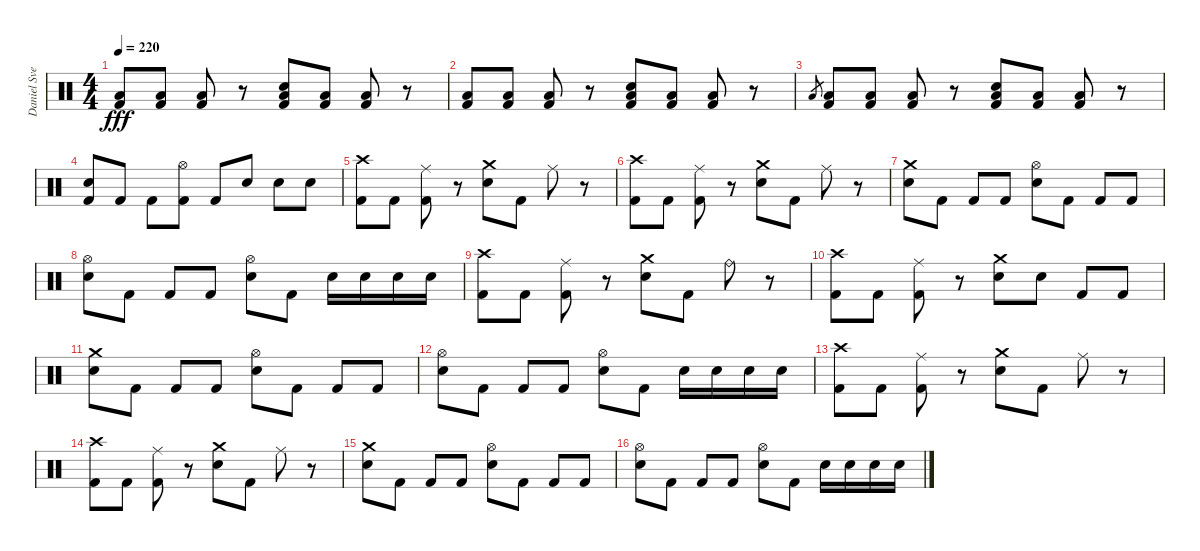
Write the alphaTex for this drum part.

\track ("Daniel Svensson" "Daniel Sve") {instrument percussion}
\staff {score}
\articulation defaults
\ts (4 4)
\tempo 220
\clef neutral
\ks c
("Low Floor Tom (hit)" "Kick (hit) 2").8{dy fff} ("Low Floor Tom (hit)" "Kick (hit) 2").8 ("Low Floor Tom (hit)" "Kick (hit) 2").8 r.8 ("Low Floor Tom (hit)" "Electric Snare (hit)" "Kick (hit) 2").8 ("Low Floor Tom (hit)" "Kick (hit) 2").8 ("Low Floor Tom (hit)" "Kick (hit) 2").8 r.8 |
("Low Floor Tom (hit)" "Kick (hit) 2").8 ("Low Floor Tom (hit)" "Kick (hit) 2").8 ("Low Floor Tom (hit)" "Kick (hit) 2").8 r.8 ("Low Floor Tom (hit)" "Electric Snare (hit)" "Kick (hit) 2").8 ("Low Floor Tom (hit)" "Kick (hit) 2").8 ("Low Floor Tom (hit)" "Kick (hit) 2").8 r.8 |
"Low Floor Tom (hit)".8{gr} ("Low Floor Tom (hit)" "Kick (hit) 2").8 ("Low Floor Tom (hit)" "Kick (hit) 2").8 ("Low Floor Tom (hit)" "Kick (hit) 2").8 r.8 ("Low Floor Tom (hit)" "Electric Snare (hit)" "Kick (hit) 2").8 ("Low Floor Tom (hit)" "Kick (hit) 2").8 ("Low Floor Tom (hit)" "Kick (hit) 2").8 r.8 |
("Electric Snare (hit)" "Kick (hit) 2").8 "Kick (hit) 2".8 "Kick (hit) 2".8 ("Hi-Hat (open)" "Kick (hit) 2").8 "Kick (hit) 2".8 "Electric Snare (hit)".8 "Electric Snare (hit)".8 "Electric Snare (hit)".8 |
("Crash high (hit)" "Kick (hit) 2").8 "Kick (hit) 2".8 ("Ride (middle)" "Kick (hit) 2").8 r.8 ("Crash medium (hit)" "Electric Snare (hit)").8 "Kick (hit) 2".8 "Ride (middle)".8 r.8 |
("Crash high (hit)" "Kick (hit) 2").8 "Kick (hit) 2".8 ("Ride (middle)" "Kick (hit) 2").8 r.8 ("Crash medium (hit)" "Electric Snare (hit)").8 "Kick (hit) 2".8 "Ride (middle)".8 r.8 |
("Crash medium (hit)" "Electric Snare (hit)").8 "Kick (hit) 2".8 "Kick (hit) 2".8 "Kick (hit) 2".8 ("Hi-Hat (open)" "Electric Snare (hit)").8 "Kick (hit) 2".8 "Kick (hit) 2".8 "Kick (hit) 2".8 |
("Hi-Hat (open)" "Electric Snare (hit)").8 "Kick (hit) 2".8 "Kick (hit) 2".8 "Kick (hit) 2".8 ("Hi-Hat (open)" "Electric Snare (hit)").8 "Kick (hit) 2".8 "Electric Snare (hit)".16 "Electric Snare (hit)".16 "Electric Snare (hit)".16 "Electric Snare (hit)".16 |
("Crash high (hit)" "Kick (hit) 2").8 "Kick (hit) 2".8 ("Ride (middle)" "Kick (hit) 2").8 r.8 ("Crash medium (hit)" "Electric Snare (hit)").8 "Kick (hit) 2".8 "Ride (bell)".8 r.8 |
("Crash high (hit)" "Kick (hit) 2").8 "Kick (hit) 2".8 ("Ride (middle)" "Kick (hit) 2").8 r.8 ("Crash medium (hit)" "Electric Snare (hit)").8 "Electric Snare (hit)".8 "Kick (hit) 2".8 "Kick (hit) 2".8 |
("Crash medium (hit)" "Electric Snare (hit)").8 "Kick (hit) 2".8 "Kick (hit) 2".8 "Kick (hit) 2".8 ("Hi-Hat (open)" "Electric Snare (hit)").8 "Kick (hit) 2".8 "Kick (hit) 2".8 "Kick (hit) 2".8 |
("Hi-Hat (open)" "Electric Snare (hit)").8 "Kick (hit) 2".8 "Kick (hit) 2".8 "Kick (hit) 2".8 ("Hi-Hat (open)" "Electric Snare (hit)").8 "Kick (hit) 2".8 "Electric Snare (hit)".16 "Electric Snare (hit)".16 "Electric Snare (hit)".16 "Electric Snare (hit)".16 |
("Crash high (hit)" "Kick (hit) 2").8 "Kick (hit) 2".8 ("Ride (middle)" "Kick (hit) 2").8 r.8 ("Crash medium (hit)" "Electric Snare (hit)").8 "Kick (hit) 2".8 "Ride (middle)".8 r.8 |
("Crash high (hit)" "Kick (hit) 2").8 "Kick (hit) 2".8 ("Ride (middle)" "Kick (hit) 2").8 r.8 ("Crash medium (hit)" "Electric Snare (hit)").8 "Kick (hit) 2".8 "Ride (middle)".8 r.8 |
("Crash medium (hit)" "Electric Snare (hit)").8 "Kick (hit) 2".8 "Kick (hit) 2".8 "Kick (hit) 2".8 ("Hi-Hat (open)" "Electric Snare (hit)").8 "Kick (hit) 2".8 "Kick (hit) 2".8 "Kick (hit) 2".8 |
("Hi-Hat (open)" "Electric Snare (hit)").8 "Kick (hit) 2".8 "Kick (hit) 2".8 "Kick (hit) 2".8 ("Hi-Hat (open)" "Electric Snare (hit)").8 "Kick (hit) 2".8 "Electric Snare (hit)".16 "Electric Snare (hit)".16 "Electric Snare (hit)".16 "Electric Snare (hit)".16
